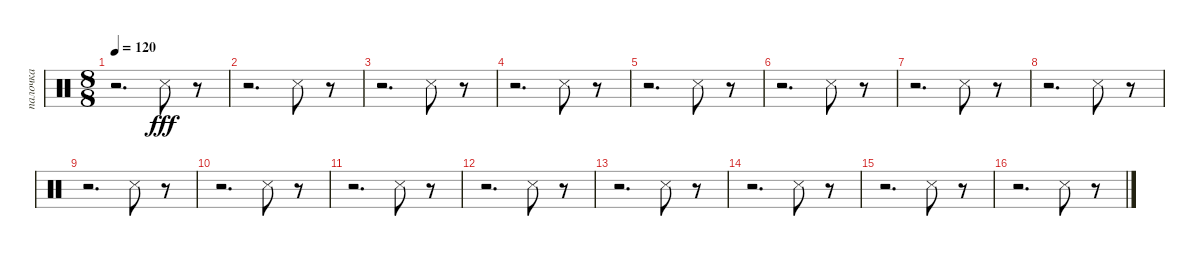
\track ("палочка" "палочка") {instrument percussion}
\staff {score}
\articulation defaults
\ts (8 8)
\tempo 120
\clef neutral
\ks c
r.2{d dy fff} "Snare (side stick) 3".8 r.8 |
r.2{d} "Snare (side stick) 3".8 r.8 |
r.2{d} "Snare (side stick) 3".8 r.8 |
r.2{d} "Snare (side stick) 3".8 r.8 |
r.2{d} "Snare (side stick) 3".8 r.8 |
r.2{d} "Snare (side stick) 3".8 r.8 |
r.2{d} "Snare (side stick) 3".8 r.8 |
r.2{d} "Snare (side stick) 3".8 r.8 |
r.2{d} "Snare (side stick) 3".8 r.8 |
r.2{d} "Snare (side stick) 3".8 r.8 |
r.2{d} "Snare (side stick) 3".8 r.8 |
r.2{d} "Snare (side stick) 3".8 r.8 |
r.2{d} "Snare (side stick) 3".8 r.8 |
r.2{d} "Snare (side stick) 3".8 r.8 |
r.2{d} "Snare (side stick) 3".8 r.8 |
r.2{d} "Snare (side stick) 3".8 r.8
